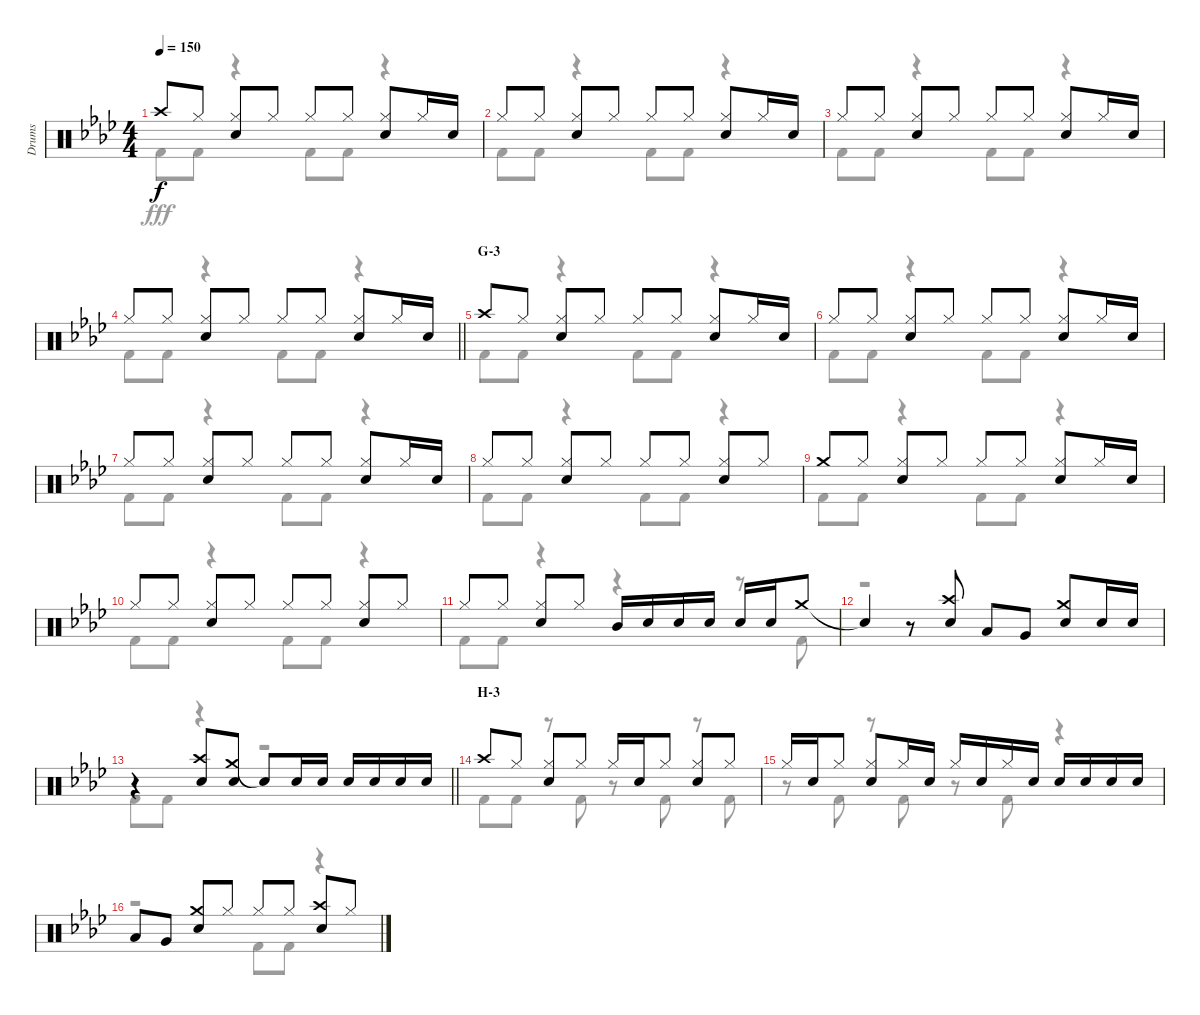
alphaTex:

\track ("Drums" "Drums") {instrument percussion}
\staff {score}
\articulation defaults
\voice
\ts (4 4)
\tempo 150
\clef neutral
\ks ab "Crash high (hit)".8{dy f} "Hi-Hat (closed)".8
("Hi-Hat (closed)" "Snare (hit) 2").8 "Hi-Hat (closed)".8 "Hi-Hat (closed)".8 "Hi-Hat (closed)".8 ("Hi-Hat (closed)" "Snare (hit) 2").8 "Hi-Hat (closed)".16 "Snare (hit) 2".16 |
"Hi-Hat (closed)".8 "Hi-Hat (closed)".8 ("Hi-Hat (closed)" "Snare (hit) 2").8 "Hi-Hat (closed)".8 "Hi-Hat (closed)".8 "Hi-Hat (closed)".8 ("Hi-Hat (closed)" "Snare (hit) 2").8 "Hi-Hat (closed)".16 "Snare (hit) 2".16 |
"Hi-Hat (closed)".8 "Hi-Hat (closed)".8 ("Hi-Hat (closed)" "Snare (hit) 2").8 "Hi-Hat (closed)".8 "Hi-Hat (closed)".8 "Hi-Hat (closed)".8 ("Hi-Hat (closed)" "Snare (hit) 2").8 "Hi-Hat (closed)".16 "Snare (hit) 2".16 |
\barLineRight lightlight "Hi-Hat (closed)".8 "Hi-Hat (closed)".8
("Hi-Hat (closed)" "Snare (hit) 2").8 "Hi-Hat (closed)".8 "Hi-Hat (closed)".8 "Hi-Hat (closed)".8 ("Hi-Hat (closed)" "Snare (hit) 2").8 "Hi-Hat (closed)".16 "Snare (hit) 2".16 |
\section ("" "G-3")
"Crash high (hit)".8 "Hi-Hat (closed)".8 ("Hi-Hat (closed)" "Snare (hit) 2").8 "Hi-Hat (closed)".8 "Hi-Hat (closed)".8 "Hi-Hat (closed)".8 ("Hi-Hat (closed)" "Snare (hit) 2").8 "Hi-Hat (closed)".16 "Snare (hit) 2".16 |
"Hi-Hat (closed)".8 "Hi-Hat (closed)".8 ("Hi-Hat (closed)" "Snare (hit) 2").8 "Hi-Hat (closed)".8 "Hi-Hat (closed)".8 "Hi-Hat (closed)".8 ("Hi-Hat (closed)" "Snare (hit) 2").8 "Hi-Hat (closed)".16 "Snare (hit) 2".16 |
"Hi-Hat (closed)".8 "Hi-Hat (closed)".8 ("Hi-Hat (closed)" "Snare (hit) 2").8 "Hi-Hat (closed)".8 "Hi-Hat (closed)".8 "Hi-Hat (closed)".8 ("Hi-Hat (closed)" "Snare (hit) 2").8 "Hi-Hat (closed)".16 "Snare (hit) 2".16 |
"Hi-Hat (closed)".8 "Hi-Hat (closed)".8 ("Hi-Hat (closed)" "Snare (hit) 2").8 "Hi-Hat (closed)".8 "Hi-Hat (closed)".8 "Hi-Hat (closed)".8 ("Hi-Hat (closed)" "Snare (hit) 2").8 "Hi-Hat (closed)".8 |
"Crash medium (hit)".8 "Hi-Hat (closed)".8 ("Hi-Hat (closed)" "Snare (hit) 2").8 "Hi-Hat (closed)".8 "Hi-Hat (closed)".8 "Hi-Hat (closed)".8 ("Hi-Hat (closed)" "Snare (hit) 2").8 "Hi-Hat (closed)".16 "Snare (hit) 2".16 |
"Hi-Hat (closed)".8 "Hi-Hat (closed)".8 ("Hi-Hat (closed)" "Snare (hit) 2").8 "Hi-Hat (closed)".8 "Hi-Hat (closed)".8 "Hi-Hat (closed)".8 ("Hi-Hat (closed)" "Snare (hit) 2").8 "Hi-Hat (closed)".8 |
"Hi-Hat (closed)".8 "Hi-Hat (closed)".8 ("Hi-Hat (closed)" "Snare (hit) 2").8 "Hi-Hat (closed)".8 "Mid Tom (hit)".16 "Snare (hit) 2".16 "Snare (hit) 2".16 "Snare (hit) 2".16 "Snare (hit) 2".16 "Snare (hit) 2".16 "Crash medium (hit)".8 |
"Snare (hit)"{t}.4 r.8 ("Crash high (hit)" "Snare (hit) 2").8 "Low Tom (hit)".8 "Very Low Tom (hit)".8 ("Crash medium (hit)" "Snare (hit) 2").8 "Snare (hit) 2".16 "Snare (hit) 2".16 |
\barLineRight lightlight
r.4 ("Crash high (hit)" "Snare (hit) 2").8 ("Crash medium (hit)" "Snare (hit) 2").8 "Snare (hit)"{t}.8 "Snare (hit) 2".16 "Snare (hit) 2".16 "Snare (hit) 2".16 "Snare (hit) 2".16 "Snare (hit) 2".16 "Snare (hit) 2".16 |
\section ("" "H-3")
"Crash high (hit)".8 "Hi-Hat (closed)".8 ("Hi-Hat (closed)" "Snare (hit) 2").8 "Hi-Hat (closed)".8 "Hi-Hat (closed)".16 "Snare (hit) 2".16 "Hi-Hat (closed)".8 ("Hi-Hat (closed)" "Snare (hit) 2").8 "Hi-Hat (closed)".8 |
"Hi-Hat (closed)".16 "Snare (hit) 2".16 "Hi-Hat (closed)".8 ("Hi-Hat (closed)" "Snare (hit) 2").8 "Hi-Hat (closed)".16 "Snare (hit) 2".16 "Hi-Hat (closed)".16 "Snare (hit) 2".16 "Hi-Hat (closed)".16 "Snare (hit) 2".16 "Snare (hit) 2".16 "Snare (hit) 2".16 "Snare (hit) 2".16 "Snare (hit) 2".16 |
"Low Tom (hit)".8 "Very Low Tom (hit)".8 ("Crash medium (hit)" "Snare (hit) 2").8 "Hi-Hat (closed)".8 "Hi-Hat (closed)".8 "Hi-Hat (closed)".8 ("Crash high (hit)" "Snare (hit) 2").8 "Hi-Hat (closed)".8
\voice
\clef neutral
\ottava regular
\simile none
\ks ab "Kick (hit) 2".8{dy fff} "Kick (hit) 2".8
r.4 "Kick (hit) 2".8 "Kick (hit) 2".8 r.4 |
"Kick (hit) 2".8 "Kick (hit) 2".8 r.4 "Kick (hit) 2".8 "Kick (hit) 2".8 r.4 |
"Kick (hit) 2".8 "Kick (hit) 2".8 r.4 "Kick (hit) 2".8 "Kick (hit) 2".8 r.4 |
\barLineRight lightlight "Kick (hit) 2".8 "Kick (hit) 2".8
r.4 "Kick (hit) 2".8 "Kick (hit) 2".8 r.4 |
"Kick (hit) 2".8 "Kick (hit) 2".8 r.4 "Kick (hit) 2".8 "Kick (hit) 2".8 r.4 |
"Kick (hit) 2".8 "Kick (hit) 2".8 r.4 "Kick (hit) 2".8 "Kick (hit) 2".8 r.4 |
"Kick (hit) 2".8 "Kick (hit) 2".8 r.4 "Kick (hit) 2".8 "Kick (hit) 2".8 r.4 |
"Kick (hit) 2".8 "Kick (hit) 2".8 r.4 "Kick (hit) 2".8 "Kick (hit) 2".8 r.4 |
"Kick (hit) 2".8 "Kick (hit) 2".8 r.4 "Kick (hit) 2".8 "Kick (hit) 2".8 r.4 |
"Kick (hit) 2".8 "Kick (hit) 2".8 r.4 "Kick (hit) 2".8 "Kick (hit) 2".8 r.4 |
"Kick (hit) 2".8 "Kick (hit) 2".8 r.4 r.4 r.8 "Kick (hit) 2".8 |
r.1 |
\barLineRight lightlight "Kick (hit) 2".8 "Kick (hit) 2".8
r.4 r.2 |
"Kick (hit) 2".8 "Kick (hit) 2".8 r.8 "Kick (hit) 2".8 r.8 "Kick (hit) 2".8 r.8 "Kick (hit) 2".8 |
r.8 "Kick (hit) 2".8 r.8 "Kick (hit) 2".8 r.8 "Kick (hit) 2".8 r.4 |
r.2 "Kick (hit) 2".8 "Kick (hit) 2".8 r.4
